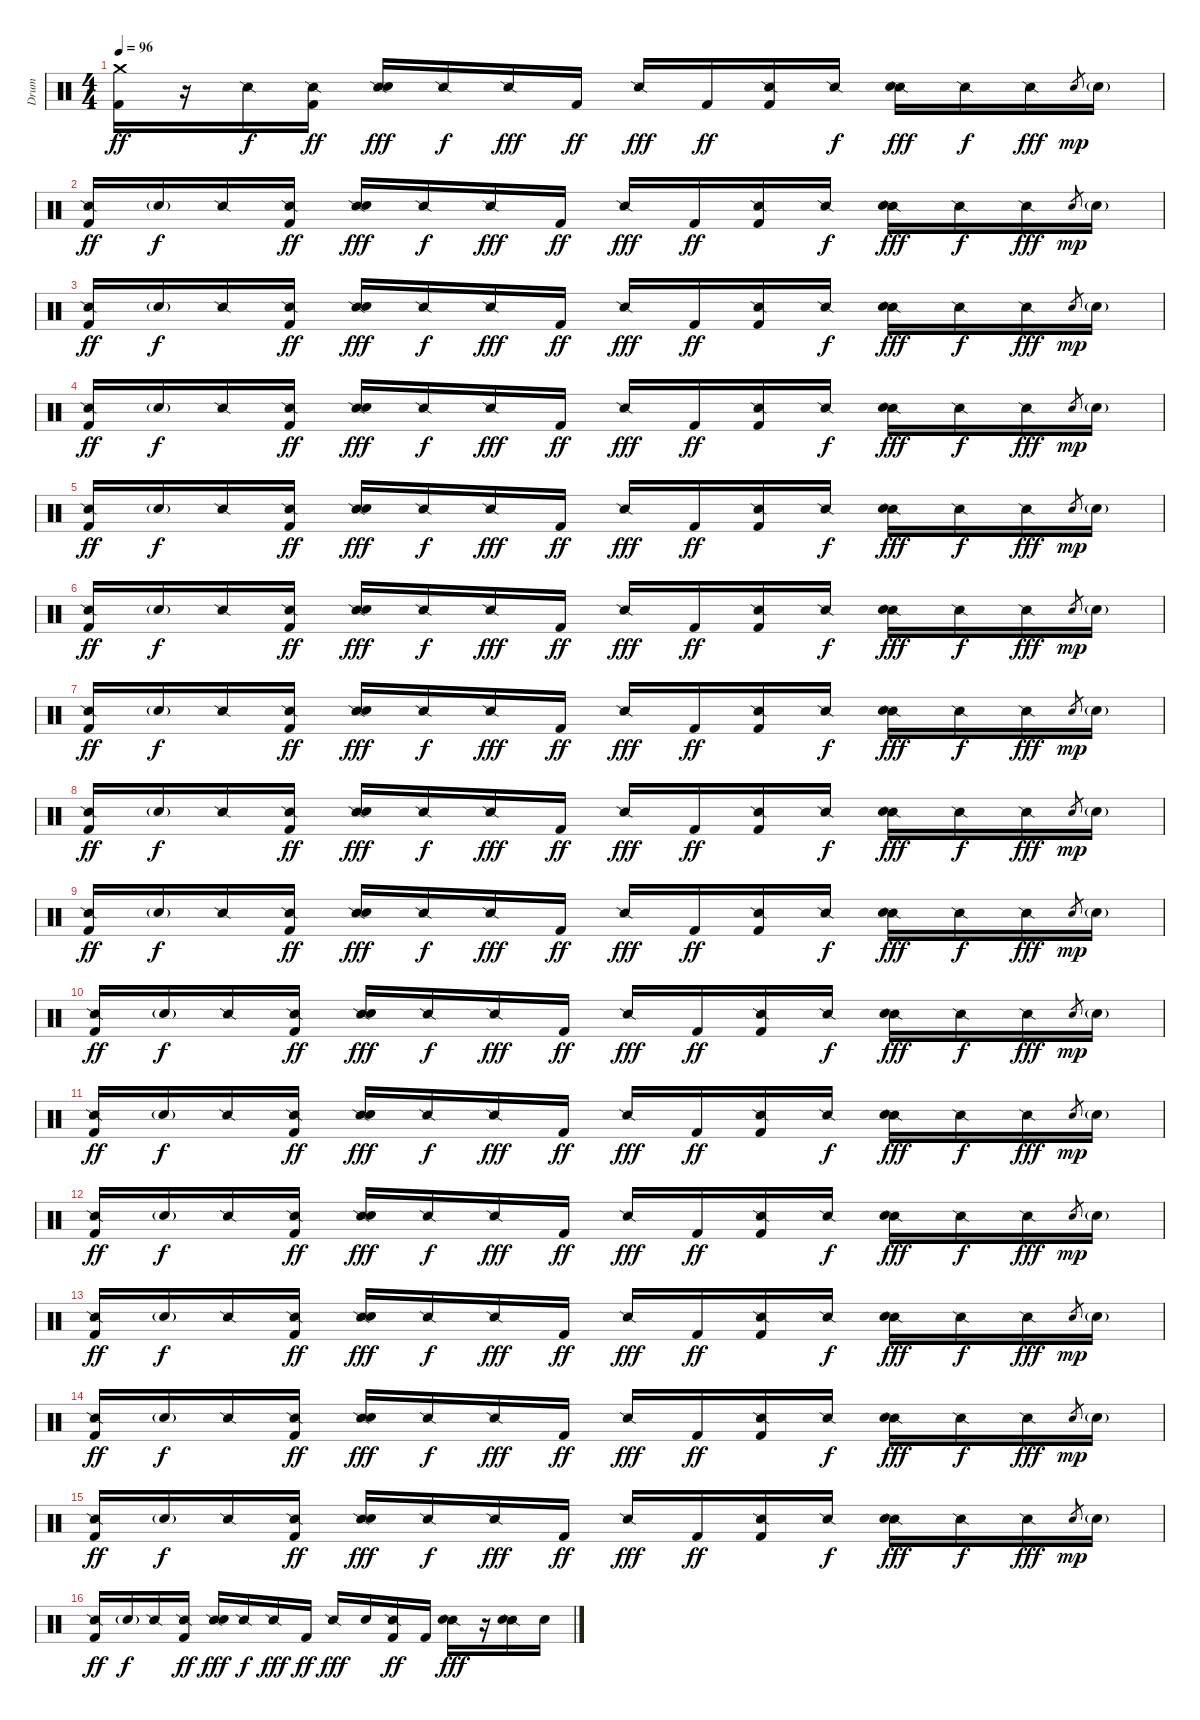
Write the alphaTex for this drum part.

\track ("Drum" "Drum") {instrument percussion}
\staff {score}
\articulation defaults
\ts (4 4)
\tempo 96
\clef neutral
\ks c
("Crash medium (hit)" "Kick (hit) 2").16{dy ff} r.16 "Snare (side stick) 2".16{dy f} ("Snare (side stick) 2" "Kick (hit) 2").16{dy ff} ("Snare (side stick) 2" "Snare (hit) 2").16{dy fff} "Snare (side stick) 2".16{dy f} "Snare (side stick) 2".16{dy fff} "Kick (hit) 2".16{dy ff} "Snare (side stick) 2".16{dy fff} "Kick (hit) 2".16{dy ff} ("Snare (side stick) 2" "Kick (hit) 2").16 "Snare (side stick) 2".16{dy f} ("Snare (side stick) 2" "Snare (hit) 2").16{dy fff} "Snare (side stick) 2".16{dy f} "Snare (side stick) 2".16{dy fff} "Snare (hit) 2".8{gr dy mp} "Snare (hit) 2"{g}.16 |
("Snare (side stick) 2" "Kick (hit) 2").16{dy ff} "Snare (hit) 2"{g}.16{dy f} "Snare (side stick) 2".16 ("Snare (side stick) 2" "Kick (hit) 2").16{dy ff} ("Snare (side stick) 2" "Snare (hit) 2").16{dy fff} "Snare (side stick) 2".16{dy f} "Snare (side stick) 2".16{dy fff} "Kick (hit) 2".16{dy ff} "Snare (side stick) 2".16{dy fff} "Kick (hit) 2".16{dy ff} ("Snare (side stick) 2" "Kick (hit) 2").16 "Snare (side stick) 2".16{dy f} ("Snare (side stick) 2" "Snare (hit) 2").16{dy fff} "Snare (side stick) 2".16{dy f} "Snare (side stick) 2".16{dy fff} "Snare (hit) 2".8{gr dy mp} "Snare (hit) 2"{g}.16 |
("Snare (side stick) 2" "Kick (hit) 2").16{dy ff} "Snare (hit) 2"{g}.16{dy f} "Snare (side stick) 2".16 ("Snare (side stick) 2" "Kick (hit) 2").16{dy ff} ("Snare (side stick) 2" "Snare (hit) 2").16{dy fff} "Snare (side stick) 2".16{dy f} "Snare (side stick) 2".16{dy fff} "Kick (hit) 2".16{dy ff} "Snare (side stick) 2".16{dy fff} "Kick (hit) 2".16{dy ff} ("Snare (side stick) 2" "Kick (hit) 2").16 "Snare (side stick) 2".16{dy f} ("Snare (side stick) 2" "Snare (hit) 2").16{dy fff} "Snare (side stick) 2".16{dy f} "Snare (side stick) 2".16{dy fff} "Snare (hit) 2".8{gr dy mp} "Snare (hit) 2"{g}.16 |
("Snare (side stick) 2" "Kick (hit) 2").16{dy ff} "Snare (hit) 2"{g}.16{dy f} "Snare (side stick) 2".16 ("Snare (side stick) 2" "Kick (hit) 2").16{dy ff} ("Snare (side stick) 2" "Snare (hit) 2").16{dy fff} "Snare (side stick) 2".16{dy f} "Snare (side stick) 2".16{dy fff} "Kick (hit) 2".16{dy ff} "Snare (side stick) 2".16{dy fff} "Kick (hit) 2".16{dy ff} ("Snare (side stick) 2" "Kick (hit) 2").16 "Snare (side stick) 2".16{dy f} ("Snare (side stick) 2" "Snare (hit) 2").16{dy fff} "Snare (side stick) 2".16{dy f} "Snare (side stick) 2".16{dy fff} "Snare (hit) 2".8{gr dy mp} "Snare (hit) 2"{g}.16 |
("Snare (side stick) 2" "Kick (hit) 2").16{dy ff} "Snare (hit) 2"{g}.16{dy f} "Snare (side stick) 2".16 ("Snare (side stick) 2" "Kick (hit) 2").16{dy ff} ("Snare (side stick) 2" "Snare (hit) 2").16{dy fff} "Snare (side stick) 2".16{dy f} "Snare (side stick) 2".16{dy fff} "Kick (hit) 2".16{dy ff} "Snare (side stick) 2".16{dy fff} "Kick (hit) 2".16{dy ff} ("Snare (side stick) 2" "Kick (hit) 2").16 "Snare (side stick) 2".16{dy f} ("Snare (side stick) 2" "Snare (hit) 2").16{dy fff} "Snare (side stick) 2".16{dy f} "Snare (side stick) 2".16{dy fff} "Snare (hit) 2".8{gr dy mp} "Snare (hit) 2"{g}.16 |
("Snare (side stick) 2" "Kick (hit) 2").16{dy ff} "Snare (hit) 2"{g}.16{dy f} "Snare (side stick) 2".16 ("Snare (side stick) 2" "Kick (hit) 2").16{dy ff} ("Snare (side stick) 2" "Snare (hit) 2").16{dy fff} "Snare (side stick) 2".16{dy f} "Snare (side stick) 2".16{dy fff} "Kick (hit) 2".16{dy ff} "Snare (side stick) 2".16{dy fff} "Kick (hit) 2".16{dy ff} ("Snare (side stick) 2" "Kick (hit) 2").16 "Snare (side stick) 2".16{dy f} ("Snare (side stick) 2" "Snare (hit) 2").16{dy fff} "Snare (side stick) 2".16{dy f} "Snare (side stick) 2".16{dy fff} "Snare (hit) 2".8{gr dy mp} "Snare (hit) 2"{g}.16 |
("Snare (side stick) 2" "Kick (hit) 2").16{dy ff} "Snare (hit) 2"{g}.16{dy f} "Snare (side stick) 2".16 ("Snare (side stick) 2" "Kick (hit) 2").16{dy ff} ("Snare (side stick) 2" "Snare (hit) 2").16{dy fff} "Snare (side stick) 2".16{dy f} "Snare (side stick) 2".16{dy fff} "Kick (hit) 2".16{dy ff} "Snare (side stick) 2".16{dy fff} "Kick (hit) 2".16{dy ff} ("Snare (side stick) 2" "Kick (hit) 2").16 "Snare (side stick) 2".16{dy f} ("Snare (side stick) 2" "Snare (hit) 2").16{dy fff} "Snare (side stick) 2".16{dy f} "Snare (side stick) 2".16{dy fff} "Snare (hit) 2".8{gr dy mp} "Snare (hit) 2"{g}.16 |
("Snare (side stick) 2" "Kick (hit) 2").16{dy ff} "Snare (hit) 2"{g}.16{dy f} "Snare (side stick) 2".16 ("Snare (side stick) 2" "Kick (hit) 2").16{dy ff} ("Snare (side stick) 2" "Snare (hit) 2").16{dy fff} "Snare (side stick) 2".16{dy f} "Snare (side stick) 2".16{dy fff} "Kick (hit) 2".16{dy ff} "Snare (side stick) 2".16{dy fff} "Kick (hit) 2".16{dy ff} ("Snare (side stick) 2" "Kick (hit) 2").16 "Snare (side stick) 2".16{dy f} ("Snare (side stick) 2" "Snare (hit) 2").16{dy fff} "Snare (side stick) 2".16{dy f} "Snare (side stick) 2".16{dy fff} "Snare (hit) 2".8{gr dy mp} "Snare (hit) 2"{g}.16 |
("Snare (side stick) 2" "Kick (hit) 2").16{dy ff} "Snare (hit) 2"{g}.16{dy f} "Snare (side stick) 2".16 ("Snare (side stick) 2" "Kick (hit) 2").16{dy ff} ("Snare (side stick) 2" "Snare (hit) 2").16{dy fff} "Snare (side stick) 2".16{dy f} "Snare (side stick) 2".16{dy fff} "Kick (hit) 2".16{dy ff} "Snare (side stick) 2".16{dy fff} "Kick (hit) 2".16{dy ff} ("Snare (side stick) 2" "Kick (hit) 2").16 "Snare (side stick) 2".16{dy f} ("Snare (side stick) 2" "Snare (hit) 2").16{dy fff} "Snare (side stick) 2".16{dy f} "Snare (side stick) 2".16{dy fff} "Snare (hit) 2".8{gr dy mp} "Snare (hit) 2"{g}.16 |
("Snare (side stick) 2" "Kick (hit) 2").16{dy ff} "Snare (hit) 2"{g}.16{dy f} "Snare (side stick) 2".16 ("Snare (side stick) 2" "Kick (hit) 2").16{dy ff} ("Snare (side stick) 2" "Snare (hit) 2").16{dy fff} "Snare (side stick) 2".16{dy f} "Snare (side stick) 2".16{dy fff} "Kick (hit) 2".16{dy ff} "Snare (side stick) 2".16{dy fff} "Kick (hit) 2".16{dy ff} ("Snare (side stick) 2" "Kick (hit) 2").16 "Snare (side stick) 2".16{dy f} ("Snare (side stick) 2" "Snare (hit) 2").16{dy fff} "Snare (side stick) 2".16{dy f} "Snare (side stick) 2".16{dy fff} "Snare (hit) 2".8{gr dy mp} "Snare (hit) 2"{g}.16 |
("Snare (side stick) 2" "Kick (hit) 2").16{dy ff} "Snare (hit) 2"{g}.16{dy f} "Snare (side stick) 2".16 ("Snare (side stick) 2" "Kick (hit) 2").16{dy ff} ("Snare (side stick) 2" "Snare (hit) 2").16{dy fff} "Snare (side stick) 2".16{dy f} "Snare (side stick) 2".16{dy fff} "Kick (hit) 2".16{dy ff} "Snare (side stick) 2".16{dy fff} "Kick (hit) 2".16{dy ff} ("Snare (side stick) 2" "Kick (hit) 2").16 "Snare (side stick) 2".16{dy f} ("Snare (side stick) 2" "Snare (hit) 2").16{dy fff} "Snare (side stick) 2".16{dy f} "Snare (side stick) 2".16{dy fff} "Snare (hit) 2".8{gr dy mp} "Snare (hit) 2"{g}.16 |
("Snare (side stick) 2" "Kick (hit) 2").16{dy ff} "Snare (hit) 2"{g}.16{dy f} "Snare (side stick) 2".16 ("Snare (side stick) 2" "Kick (hit) 2").16{dy ff} ("Snare (side stick) 2" "Snare (hit) 2").16{dy fff} "Snare (side stick) 2".16{dy f} "Snare (side stick) 2".16{dy fff} "Kick (hit) 2".16{dy ff} "Snare (side stick) 2".16{dy fff} "Kick (hit) 2".16{dy ff} ("Snare (side stick) 2" "Kick (hit) 2").16 "Snare (side stick) 2".16{dy f} ("Snare (side stick) 2" "Snare (hit) 2").16{dy fff} "Snare (side stick) 2".16{dy f} "Snare (side stick) 2".16{dy fff} "Snare (hit) 2".8{gr dy mp} "Snare (hit) 2"{g}.16 |
("Snare (side stick) 2" "Kick (hit) 2").16{dy ff} "Snare (hit) 2"{g}.16{dy f} "Snare (side stick) 2".16 ("Snare (side stick) 2" "Kick (hit) 2").16{dy ff} ("Snare (side stick) 2" "Snare (hit) 2").16{dy fff} "Snare (side stick) 2".16{dy f} "Snare (side stick) 2".16{dy fff} "Kick (hit) 2".16{dy ff} "Snare (side stick) 2".16{dy fff} "Kick (hit) 2".16{dy ff} ("Snare (side stick) 2" "Kick (hit) 2").16 "Snare (side stick) 2".16{dy f} ("Snare (side stick) 2" "Snare (hit) 2").16{dy fff} "Snare (side stick) 2".16{dy f} "Snare (side stick) 2".16{dy fff} "Snare (hit) 2".8{gr dy mp} "Snare (hit) 2"{g}.16 |
("Snare (side stick) 2" "Kick (hit) 2").16{dy ff} "Snare (hit) 2"{g}.16{dy f} "Snare (side stick) 2".16 ("Snare (side stick) 2" "Kick (hit) 2").16{dy ff} ("Snare (side stick) 2" "Snare (hit) 2").16{dy fff} "Snare (side stick) 2".16{dy f} "Snare (side stick) 2".16{dy fff} "Kick (hit) 2".16{dy ff} "Snare (side stick) 2".16{dy fff} "Kick (hit) 2".16{dy ff} ("Snare (side stick) 2" "Kick (hit) 2").16 "Snare (side stick) 2".16{dy f} ("Snare (side stick) 2" "Snare (hit) 2").16{dy fff} "Snare (side stick) 2".16{dy f} "Snare (side stick) 2".16{dy fff} "Snare (hit) 2".8{gr dy mp} "Snare (hit) 2"{g}.16 |
("Snare (side stick) 2" "Kick (hit) 2").16{dy ff} "Snare (hit) 2"{g}.16{dy f} "Snare (side stick) 2".16 ("Snare (side stick) 2" "Kick (hit) 2").16{dy ff} ("Snare (side stick) 2" "Snare (hit) 2").16{dy fff} "Snare (side stick) 2".16{dy f} "Snare (side stick) 2".16{dy fff} "Kick (hit) 2".16{dy ff} "Snare (side stick) 2".16{dy fff} "Kick (hit) 2".16{dy ff} ("Snare (side stick) 2" "Kick (hit) 2").16 "Snare (side stick) 2".16{dy f} ("Snare (side stick) 2" "Snare (hit) 2").16{dy fff} "Snare (side stick) 2".16{dy f} "Snare (side stick) 2".16{dy fff} "Snare (hit) 2".8{gr dy mp} "Snare (hit) 2"{g}.16 |
("Snare (side stick) 2" "Kick (hit) 2").16{dy ff} "Snare (hit) 2"{g}.16{dy f} "Snare (side stick) 2".16 ("Snare (side stick) 2" "Kick (hit) 2").16{dy ff} ("Snare (side stick) 2" "Snare (hit) 2").16{dy fff} "Snare (side stick) 2".16{dy f} "Snare (side stick) 2".16{dy fff} "Kick (hit) 2".16{dy ff} "Snare (side stick) 2".16{dy fff} "Snare (hit) 2".16 ("Snare (side stick) 2" "Kick (hit) 2").16{dy ff} "Kick (hit) 2".16 ("Snare (side stick) 2" "Snare (hit) 2").16{dy fff} r.16 ("Snare (side stick) 2" "Snare (hit) 2").16 "Snare (hit) 2".16
